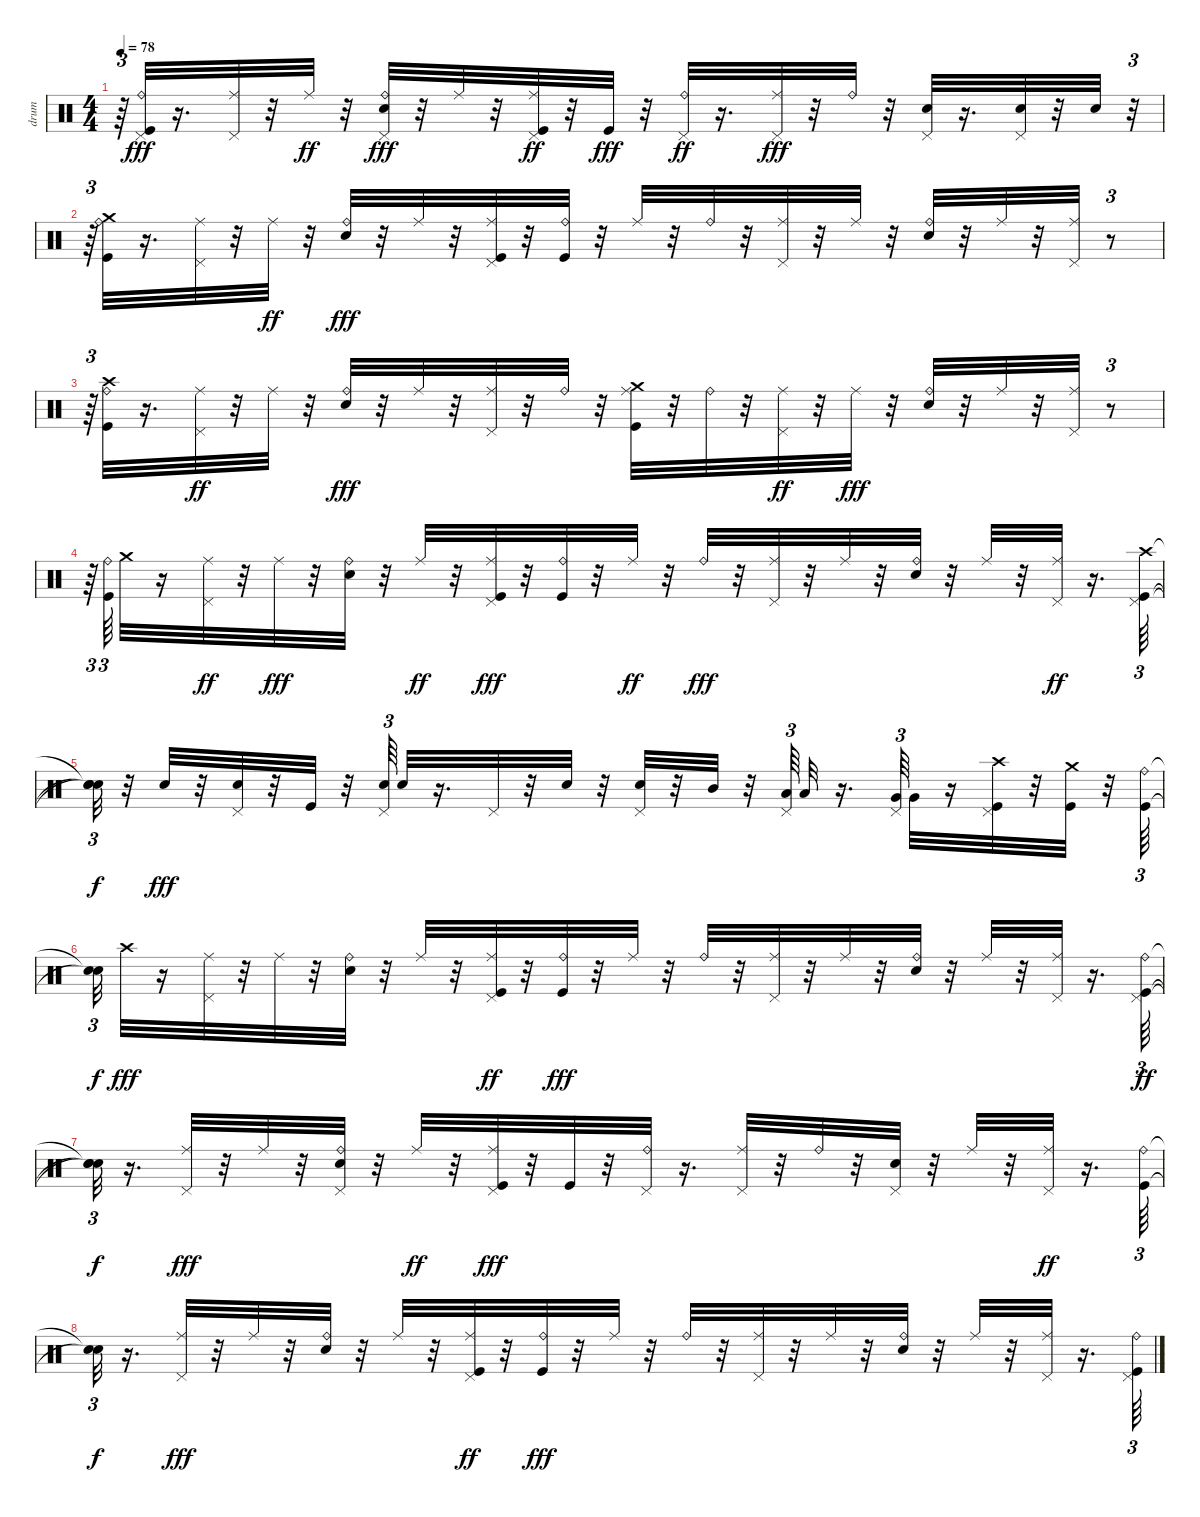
\track ("drum" "drum") {instrument percussion}
\staff {score}
\articulation defaults
\ts (4 4)
\tempo 78
\clef neutral
\ks c
r.64{tu (3 2) dy fff} ("Ride (bell)" "Pedal Hi-Hat (hit)" "Kick (hit)").32 r.16{d} ("Ride (middle)" "Pedal Hi-Hat (hit)").32 r.32 "Ride (middle)".32{dy ff} r.32 ("Ride (bell)" "Pedal Hi-Hat (hit)" "Electric Snare (hit)").32{dy fff} r.32 "Ride (middle)".32 r.32 ("Ride (middle)" "Pedal Hi-Hat (hit)" "Kick (hit)").32{dy ff} r.32 "Kick (hit)".32{dy fff} r.32 ("Ride (bell)" "Pedal Hi-Hat (hit)").32{dy ff} r.16{d} ("Ride (middle)" "Pedal Hi-Hat (hit)").32{dy fff} r.32 "Ride (bell)".32 r.32 ("Pedal Hi-Hat (hit)" "Electric Snare (hit)").32 r.16{d} ("Pedal Hi-Hat (hit)" "Electric Snare (hit)").32 r.32 "Electric Snare (hit)".32 r.32{tu (3 2)} |
r.64{tu (3 2)} ("Ride (bell)" "Kick (hit)" "Crash medium (hit)").32 r.16{d} ("Ride (middle)" "Pedal Hi-Hat (hit)").32 r.32 "Ride (middle)".32{dy ff} r.32 ("Ride (bell)" "Electric Snare (hit)").32{dy fff} r.32 "Ride (middle)".32 r.32 ("Ride (middle)" "Pedal Hi-Hat (hit)" "Kick (hit)").32 r.32 ("Ride (bell)" "Kick (hit)").32 r.32 "Ride (middle)".32 r.32 "Ride (bell)".32 r.32 ("Ride (middle)" "Pedal Hi-Hat (hit)").32 r.32 "Ride (middle)".32 r.32 ("Ride (bell)" "Electric Snare (hit)").32 r.32 "Ride (middle)".32 r.32 ("Ride (middle)" "Pedal Hi-Hat (hit)").32 r.8{tu (3 2)} |
r.64{tu (3 2)} ("Ride (bell)" "Crash high (hit)" "Kick (hit)").32 r.16{d} ("Ride (middle)" "Pedal Hi-Hat (hit)").32{dy ff} r.32 "Ride (middle)".32 r.32 ("Ride (bell)" "Electric Snare (hit)").32{dy fff} r.32 "Ride (middle)".32 r.32 ("Ride (middle)" "Pedal Hi-Hat (hit)").32 r.32 "Ride (bell)".32 r.32 ("Ride (middle)" "Crash medium (hit)" "Kick (hit)").32 r.32 "Ride (bell)".32 r.32 ("Ride (middle)" "Pedal Hi-Hat (hit)").32{dy ff} r.32 "Ride (middle)".32{dy fff} r.32 ("Ride (bell)" "Electric Snare (hit)").32 r.32 "Ride (middle)".32 r.32 ("Ride (middle)" "Pedal Hi-Hat (hit)").32 r.8{tu (3 2)} |
r.64{tu (3 2)} ("Ride (bell)" "Kick (hit)").64{tu (3 2)} "Crash medium (hit)".32 r.16 ("Ride (middle)" "Pedal Hi-Hat (hit)").32{dy ff} r.32 "Ride (middle)".32{dy fff} r.32 ("Ride (bell)" "Electric Snare (hit)").32 r.32 "Ride (middle)".32{dy ff} r.32 ("Ride (middle)" "Pedal Hi-Hat (hit)" "Kick (hit)").32{dy fff} r.32 ("Ride (bell)" "Kick (hit)").32 r.32 "Ride (middle)".32{dy ff} r.32 "Ride (bell)".32{dy fff} r.32 ("Ride (middle)" "Pedal Hi-Hat (hit)").32 r.32 "Ride (middle)".32 r.32 ("Ride (bell)" "Electric Snare (hit)").32 r.32 "Ride (middle)".32 r.32 ("Ride (middle)" "Pedal Hi-Hat (hit)").32{dy ff} r.16{d} ("Pedal Hi-Hat (hit)" "Crash high (hit)" "Kick (hit)").64{tu (3 2)} |
("Snare (hit)"{t} "Snare (hit)"{t} "Snare (hit)"{t}).32{tu (3 2) dy f} r.32 "Electric Snare (hit)".32{dy fff} r.32 ("Pedal Hi-Hat (hit)" "Electric Snare (hit)").32 r.32 "Kick (hit)".32 r.32 ("Pedal Hi-Hat (hit)" "Electric Snare (hit)").64{tu (3 2)} "Electric Snare (hit)".32 r.16{d} "Pedal Hi-Hat (hit)".32 r.32 "Electric Snare (hit)".32 r.32 ("Pedal Hi-Hat (hit)" "Electric Snare (hit)").32 r.32 "Mid Tom (hit)".32 r.32 ("Pedal Hi-Hat (hit)" "Low Tom (hit)").64{tu (3 2)} "Low Tom (hit)".32 r.16{d} ("Pedal Hi-Hat (hit)" "Very Low Tom (hit)").64{tu (3 2)} "Very Low Tom (hit)".32 r.16 ("Pedal Hi-Hat (hit)" "Crash high (hit)" "Kick (hit)").32 r.32 ("Crash medium (hit)" "Kick (hit)").32 r.32 ("Ride (bell)" "Kick (hit)").64{tu (3 2)} |
("Snare (hit)"{t} "Snare (hit)"{t}).32{tu (3 2) dy f} "Crash high (hit)".32{dy fff} r.16 ("Ride (middle)" "Pedal Hi-Hat (hit)").32 r.32 "Ride (middle)".32 r.32 ("Ride (bell)" "Electric Snare (hit)").32 r.32 "Ride (middle)".32 r.32 ("Ride (middle)" "Pedal Hi-Hat (hit)" "Kick (hit)").32{dy ff} r.32 ("Ride (bell)" "Kick (hit)").32{dy fff} r.32 "Ride (middle)".32 r.32 "Ride (bell)".32 r.32 ("Ride (middle)" "Pedal Hi-Hat (hit)").32 r.32 "Ride (middle)".32 r.32 ("Ride (bell)" "Electric Snare (hit)").32 r.32 "Ride (middle)".32 r.32 ("Ride (middle)" "Pedal Hi-Hat (hit)").32 r.16{d} ("Ride (bell)" "Pedal Hi-Hat (hit)" "Kick (hit)").64{tu (3 2) dy ff} |
("Snare (hit)"{t} "Snare (hit)"{t} "Snare (hit)"{t}).32{tu (3 2) dy f} r.16{d} ("Ride (middle)" "Pedal Hi-Hat (hit)").32{dy fff} r.32 "Ride (middle)".32 r.32 ("Ride (bell)" "Pedal Hi-Hat (hit)" "Electric Snare (hit)").32 r.32 "Ride (middle)".32{dy ff} r.32 ("Ride (middle)" "Pedal Hi-Hat (hit)" "Kick (hit)").32{dy fff} r.32 "Kick (hit)".32 r.32 ("Ride (bell)" "Pedal Hi-Hat (hit)").32 r.16{d} ("Ride (middle)" "Pedal Hi-Hat (hit)").32 r.32 "Ride (bell)".32 r.32 ("Pedal Hi-Hat (hit)" "Electric Snare (hit)").32 r.32 "Ride (middle)".32 r.32 ("Ride (middle)" "Pedal Hi-Hat (hit)").32{dy ff} r.16{d} ("Ride (bell)" "Kick (hit)").64{tu (3 2)} |
("Snare (hit)"{t} "Snare (hit)"{t}).32{tu (3 2) dy f} r.16{d} ("Ride (middle)" "Pedal Hi-Hat (hit)").32{dy fff} r.32 "Ride (middle)".32 r.32 ("Ride (bell)" "Electric Snare (hit)").32 r.32 "Ride (middle)".32 r.32 ("Ride (middle)" "Pedal Hi-Hat (hit)" "Kick (hit)").32{dy ff} r.32 ("Ride (bell)" "Kick (hit)").32{dy fff} r.32 "Ride (middle)".32 r.32 "Ride (bell)".32 r.32 ("Ride (middle)" "Pedal Hi-Hat (hit)").32 r.32 "Ride (middle)".32 r.32 ("Ride (bell)" "Electric Snare (hit)").32 r.32 "Ride (middle)".32 r.32 ("Ride (middle)" "Pedal Hi-Hat (hit)").32 r.16{d} ("Ride (bell)" "Pedal Hi-Hat (hit)" "Kick (hit)").64{tu (3 2)}
